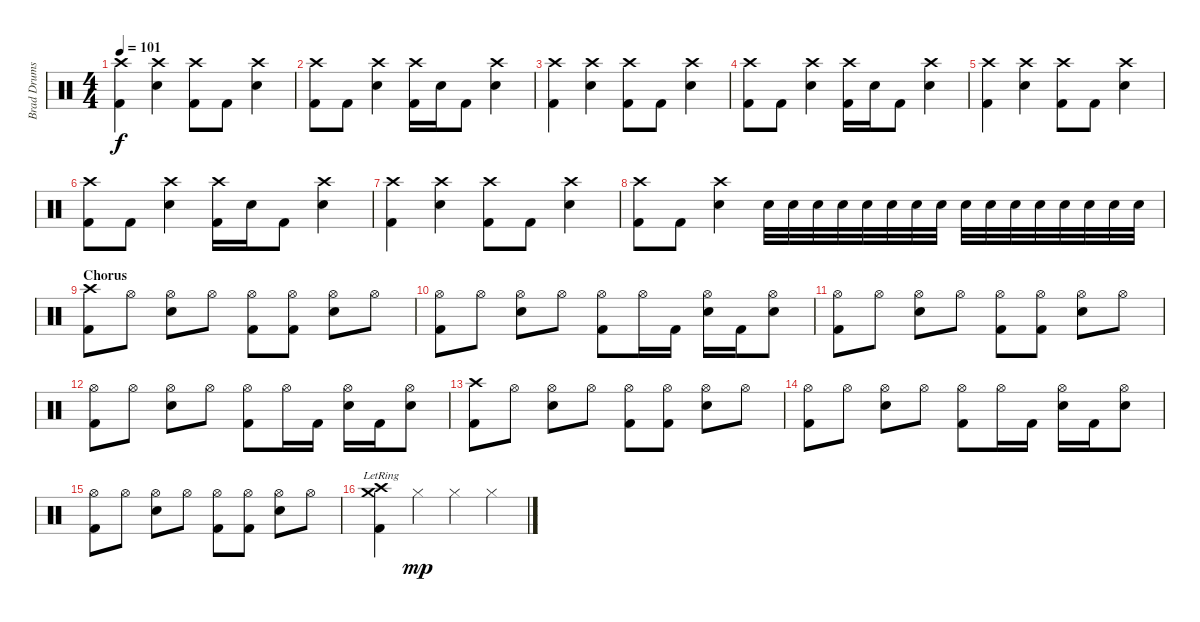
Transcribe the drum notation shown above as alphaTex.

\track ("Brad Drums" "Brad Drums") {instrument percussion}
\staff {score}
\articulation defaults
\ts (4 4)
\tempo 101
\clef neutral
\ks c
("Crash high (hit)" "Kick (hit) 2").4{dy f} ("Crash high (hit)" "Electric Snare (hit)").4 ("Crash high (hit)" "Kick (hit) 2").8 "Kick (hit) 2".8 ("Crash high (hit)" "Electric Snare (hit)").4 |
("Crash high (hit)" "Kick (hit) 2").8 "Kick (hit) 2".8 ("Crash high (hit)" "Electric Snare (hit)").4 ("Crash high (hit)" "Kick (hit) 2").16 "Electric Snare (hit)".16 "Kick (hit) 2".8 ("Crash high (hit)" "Electric Snare (hit)").4 |
("Crash high (hit)" "Kick (hit) 2").4 ("Crash high (hit)" "Electric Snare (hit)").4 ("Crash high (hit)" "Kick (hit) 2").8 "Kick (hit) 2".8 ("Crash high (hit)" "Electric Snare (hit)").4 |
("Crash high (hit)" "Kick (hit) 2").8 "Kick (hit) 2".8 ("Crash high (hit)" "Electric Snare (hit)").4 ("Crash high (hit)" "Kick (hit) 2").16 "Electric Snare (hit)".16 "Kick (hit) 2".8 ("Crash high (hit)" "Electric Snare (hit)").4 |
("Crash high (hit)" "Kick (hit) 2").4 ("Crash high (hit)" "Electric Snare (hit)").4 ("Crash high (hit)" "Kick (hit) 2").8 "Kick (hit) 2".8 ("Crash high (hit)" "Electric Snare (hit)").4 |
("Crash high (hit)" "Kick (hit) 2").8 "Kick (hit) 2".8 ("Crash high (hit)" "Electric Snare (hit)").4 ("Crash high (hit)" "Kick (hit) 2").16 "Electric Snare (hit)".16 "Kick (hit) 2".8 ("Crash high (hit)" "Electric Snare (hit)").4 |
("Crash high (hit)" "Kick (hit) 2").4 ("Crash high (hit)" "Electric Snare (hit)").4 ("Crash high (hit)" "Kick (hit) 2").8 "Kick (hit) 2".8 ("Crash high (hit)" "Electric Snare (hit)").4 |
("Crash high (hit)" "Kick (hit) 2").8 "Kick (hit) 2".8 ("Crash high (hit)" "Electric Snare (hit)").4 "Electric Snare (hit)".32 "Electric Snare (hit)".32 "Electric Snare (hit)".32 "Electric Snare (hit)".32 "Electric Snare (hit)".32 "Electric Snare (hit)".32 "Electric Snare (hit)".32 "Electric Snare (hit)".32 "Electric Snare (hit)".32 "Electric Snare (hit)".32 "Electric Snare (hit)".32 "Electric Snare (hit)".32 "Electric Snare (hit)".32 "Electric Snare (hit)".32 "Electric Snare (hit)".32 "Electric Snare (hit)".32 |
\section ("" "Chorus")
("Crash high (hit)" "Kick (hit) 2").8 "Hi-Hat (open)".8 ("Hi-Hat (open)" "Electric Snare (hit)").8 "Hi-Hat (open)".8 ("Hi-Hat (open)" "Kick (hit) 2").8 ("Hi-Hat (open)" "Kick (hit) 2").8 ("Hi-Hat (open)" "Electric Snare (hit)").8 "Hi-Hat (open)".8 |
("Hi-Hat (open)" "Kick (hit) 2").8 "Hi-Hat (open)".8 ("Hi-Hat (open)" "Electric Snare (hit)").8 "Hi-Hat (open)".8 ("Hi-Hat (open)" "Kick (hit) 2").8 "Hi-Hat (open)".16 "Kick (hit) 2".16 ("Hi-Hat (open)" "Electric Snare (hit)").16 "Kick (hit) 2".16 ("Hi-Hat (open)" "Electric Snare (hit)").8 |
("Hi-Hat (open)" "Kick (hit) 2").8 "Hi-Hat (open)".8 ("Hi-Hat (open)" "Electric Snare (hit)").8 "Hi-Hat (open)".8 ("Hi-Hat (open)" "Kick (hit) 2").8 ("Hi-Hat (open)" "Kick (hit) 2").8 ("Hi-Hat (open)" "Electric Snare (hit)").8 "Hi-Hat (open)".8 |
("Hi-Hat (open)" "Kick (hit) 2").8 "Hi-Hat (open)".8 ("Hi-Hat (open)" "Electric Snare (hit)").8 "Hi-Hat (open)".8 ("Hi-Hat (open)" "Kick (hit) 2").8 "Hi-Hat (open)".16 "Kick (hit) 2".16 ("Hi-Hat (open)" "Electric Snare (hit)").16 "Kick (hit) 2".16 ("Hi-Hat (open)" "Electric Snare (hit)").8 |
("Crash high (hit)" "Kick (hit) 2").8 "Hi-Hat (open)".8 ("Hi-Hat (open)" "Electric Snare (hit)").8 "Hi-Hat (open)".8 ("Hi-Hat (open)" "Kick (hit) 2").8 ("Hi-Hat (open)" "Kick (hit) 2").8 ("Hi-Hat (open)" "Electric Snare (hit)").8 "Hi-Hat (open)".8 |
("Hi-Hat (open)" "Kick (hit) 2").8 "Hi-Hat (open)".8 ("Hi-Hat (open)" "Electric Snare (hit)").8 "Hi-Hat (open)".8 ("Hi-Hat (open)" "Kick (hit) 2").8 "Hi-Hat (open)".16 "Kick (hit) 2".16 ("Hi-Hat (open)" "Electric Snare (hit)").16 "Kick (hit) 2".16 ("Hi-Hat (open)" "Electric Snare (hit)").8 |
("Hi-Hat (open)" "Kick (hit) 2").8 "Hi-Hat (open)".8 ("Hi-Hat (open)" "Electric Snare (hit)").8 "Hi-Hat (open)".8 ("Hi-Hat (open)" "Kick (hit) 2").8 ("Hi-Hat (open)" "Kick (hit) 2").8 ("Hi-Hat (open)" "Electric Snare (hit)").8 "Hi-Hat (open)".8 |
("Crash high (hit)"{lr} "Crash medium (hit)"{lr} "Kick (hit) 2").4 "Hi-Hat (closed)".4{dy mp} "Hi-Hat (closed)".4 "Hi-Hat (closed)".4
